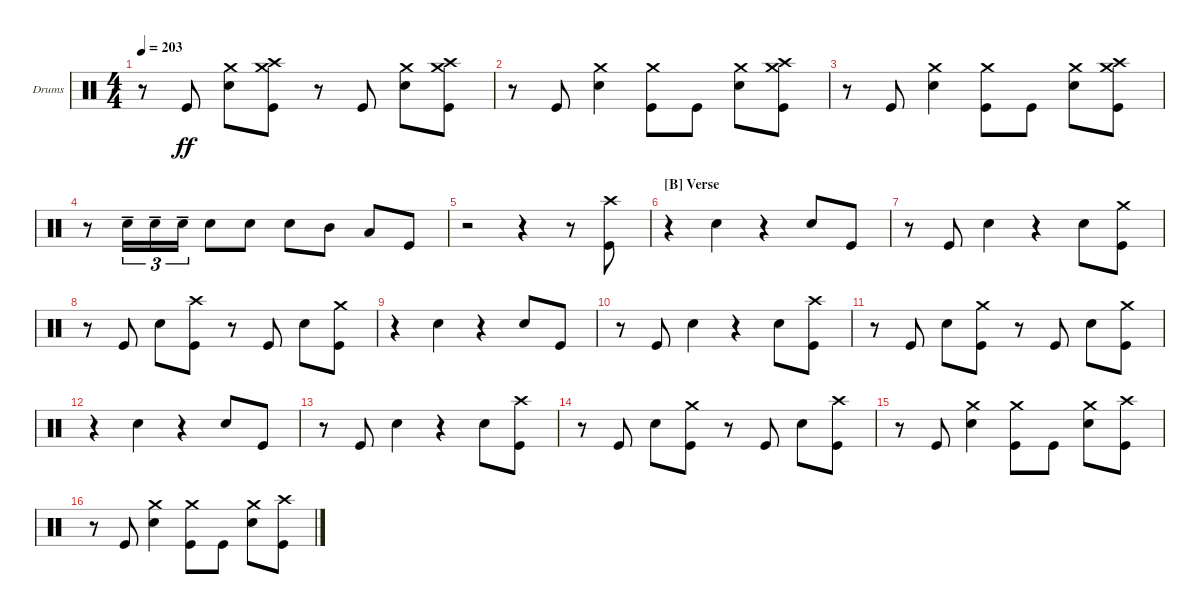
\defaultSystemsLayout 4
\bracketExtendMode groupsimilarinstruments
\firstSystemTrackNameOrientation horizontal
\otherSystemsTrackNameOrientation horizontal
\track ("Brandon Barnes - Drums" "Drums") {instrument percussion}
\staff {score}
\articulation defaults
\ts (4 4)
\tempo 203
\clef neutral
\ks c
r.8{dy ff} "Kick (hit)".8 ("Snare (hit) 2" "Crash medium (hit)").8 ("Kick (hit)" "Crash medium (hit)" "Crash high (hit)").8 r.8 "Kick (hit)".8 ("Snare (hit) 2" "Crash medium (hit)").8 ("Kick (hit)" "Crash medium (hit)" "Crash high (hit)").8 |
r.8 "Kick (hit)".8 ("Snare (hit) 2" "Crash medium (hit)").4 ("Kick (hit)" "Crash medium (hit)").8 "Kick (hit)".8 ("Snare (hit) 2" "Crash medium (hit)").8 ("Kick (hit)" "Crash medium (hit)" "Crash high (hit)").8 |
r.8 "Kick (hit)".8 ("Snare (hit) 2" "Crash medium (hit)").4 ("Kick (hit)" "Crash medium (hit)").8 "Kick (hit)".8 ("Snare (hit) 2" "Crash medium (hit)").8 ("Kick (hit)" "Crash medium (hit)" "Crash high (hit)").8 |
r.8 "Snare (hit) 2"{ten}.16{tu (3 2)} "Snare (hit) 2"{ten}.16{tu (3 2)} "Snare (hit) 2"{ten}.16{tu (3 2)} "Snare (hit) 2".8 "Snare (hit) 2".8 "Snare (hit) 2".8 "Mid Tom (hit)".8 "Low Tom (hit)".8 "Kick (hit)".8 |
r.2 r.4 r.8 ("Kick (hit)" "Crash high (hit)").8 |
\section ("B" "Verse")
r.4 "Snare (hit) 2".4 r.4 "Snare (hit) 2".8 "Kick (hit)".8 |
r.8 "Kick (hit)".8 "Snare (hit) 2".4 r.4 "Snare (hit) 2".8 ("Kick (hit)" "Crash medium (hit)").8 |
r.8 "Kick (hit)".8 "Snare (hit) 2".8 ("Kick (hit)" "Crash high (hit)").8 r.8 "Kick (hit)".8 "Snare (hit) 2".8 ("Kick (hit)" "Crash medium (hit)").8 |
r.4 "Snare (hit) 2".4 r.4 "Snare (hit) 2".8 "Kick (hit)".8 |
r.8 "Kick (hit)".8 "Snare (hit) 2".4 r.4 "Snare (hit) 2".8 ("Kick (hit)" "Crash high (hit)").8 |
r.8 "Kick (hit)".8 "Snare (hit) 2".8 ("Kick (hit)" "Crash medium (hit)").8 r.8 "Kick (hit)".8 "Snare (hit) 2".8 ("Kick (hit)" "Crash medium (hit)").8 |
r.4 "Snare (hit) 2".4 r.4 "Snare (hit) 2".8 "Kick (hit)".8 |
r.8 "Kick (hit)".8 "Snare (hit) 2".4 r.4 "Snare (hit) 2".8 ("Kick (hit)" "Crash high (hit)").8 |
r.8 "Kick (hit)".8 "Snare (hit) 2".8 ("Kick (hit)" "Crash medium (hit)").8 r.8 "Kick (hit)".8 "Snare (hit) 2".8 ("Kick (hit)" "Crash high (hit)").8 |
r.8 "Kick (hit)".8 ("Snare (hit) 2" "Crash medium (hit)").4 ("Kick (hit)" "Crash medium (hit)").8 "Kick (hit)".8 ("Snare (hit) 2" "Crash medium (hit)").8 ("Kick (hit)" "Crash high (hit)").8 |
r.8 "Kick (hit)".8 ("Snare (hit) 2" "Crash medium (hit)").4 ("Kick (hit)" "Crash medium (hit)").8 "Kick (hit)".8 ("Snare (hit) 2" "Crash medium (hit)").8 ("Kick (hit)" "Crash high (hit)").8
